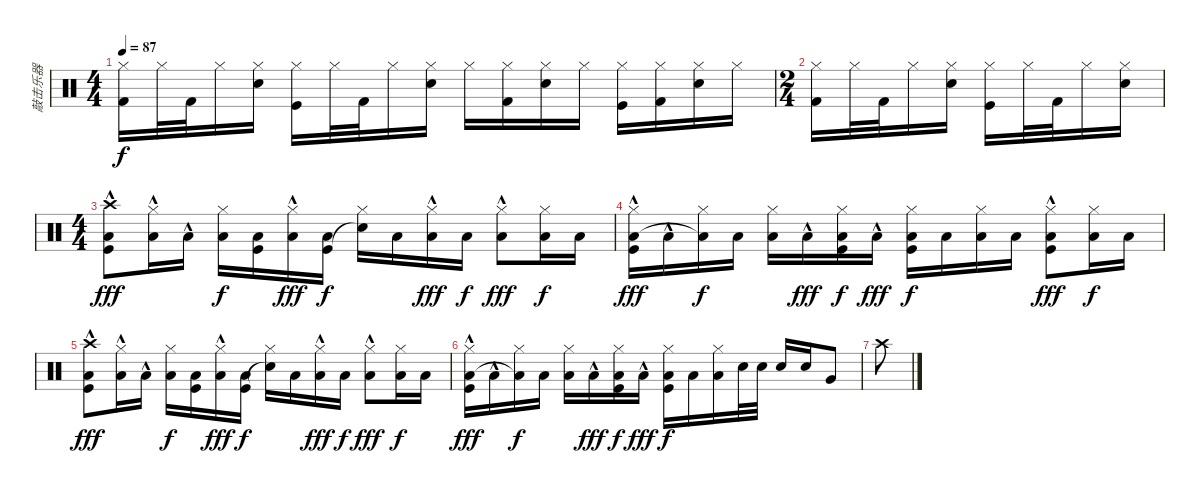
\track ("敲击乐器" "敲击乐器") {instrument percussion}
\staff {score}
\articulation defaults
\ts (4 4)
\tempo 87
\clef neutral
\ks c
("Hi-Hat (closed)" "Kick (hit) 2").16{dy f} "Hi-Hat (closed)".32 "Kick (hit) 2".32 "Hi-Hat (closed)".16 ("Hi-Hat (closed)" "Snare (hit) 2").16 ("Hi-Hat (closed)" "Kick (hit)").16 "Hi-Hat (closed)".32 "Kick (hit) 2".32 "Hi-Hat (closed)".16 ("Hi-Hat (closed)" "Snare (hit) 2").16 "Hi-Hat (closed)".16 ("Hi-Hat (closed)" "Kick (hit) 2").16 ("Hi-Hat (closed)" "Snare (hit) 2").16 "Hi-Hat (closed)".16 ("Hi-Hat (closed)" "Kick (hit)").16 ("Hi-Hat (closed)" "Kick (hit) 2").16 ("Hi-Hat (closed)" "Snare (hit) 2").16 "Hi-Hat (closed)".16 |
\ts (2 4)
("Hi-Hat (closed)" "Kick (hit) 2").16 "Hi-Hat (closed)".32 "Kick (hit) 2".32 "Hi-Hat (closed)".16 ("Hi-Hat (closed)" "Snare (hit) 2").16 ("Hi-Hat (closed)" "Kick (hit)").16 "Hi-Hat (closed)".32 "Kick (hit) 2".32 "Hi-Hat (closed)".16 ("Hi-Hat (closed)" "Snare (hit) 2").16 |
\ts (4 4)
("Crash high (hit)" "Low Floor Tom (hit)"{hac} "Kick (hit)").8{dy fff} ("Hi-Hat (closed)" "Low Floor Tom (hit)"{hac}).16 "Low Floor Tom (hit)"{hac}.16 ("Hi-Hat (closed)" "Low Floor Tom (hit)").16{dy f} ("Low Floor Tom (hit)" "Kick (hit)").16 ("Hi-Hat (closed)" "Low Floor Tom (hit)"{hac}).16{dy fff} ("Low Floor Tom (hit)" "Kick (hit)").16{dy f} ("Hi-Hat (closed)" "Snare (hit)"{t}).16 "Low Floor Tom (hit)".16 ("Hi-Hat (closed)" "Low Floor Tom (hit)"{hac}).16{dy fff} "Low Floor Tom (hit)".16{dy f} ("Hi-Hat (closed)" "Low Floor Tom (hit)"{hac}).8{dy fff} ("Hi-Hat (closed)" "Low Floor Tom (hit)").16{dy f} "Low Floor Tom (hit)".16 |
("Hi-Hat (closed)" "Low Floor Tom (hit)"{hac} "Kick (hit)").16{dy fff} "Low Floor Tom (hit)"{hac}.16 ("Hi-Hat (closed)" "Low Floor Tom (hit)"{t}).16{dy f} "Low Floor Tom (hit)".16 ("Hi-Hat (closed)" "Low Floor Tom (hit)").16 "Low Floor Tom (hit)"{hac}.16{dy fff} ("Hi-Hat (closed)" "Low Floor Tom (hit)" "Kick (hit)").16{dy f} "Low Floor Tom (hit)"{hac}.16{dy fff} ("Hi-Hat (closed)" "Low Floor Tom (hit)" "Kick (hit)").16{dy f} "Low Floor Tom (hit)".16 ("Hi-Hat (closed)" "Low Floor Tom (hit)").16 "Low Floor Tom (hit)".16 ("Hi-Hat (closed)" "Low Floor Tom (hit)"{hac} "Kick (hit)").8{dy fff} ("Hi-Hat (closed)" "Low Floor Tom (hit)").16{dy f} "Low Floor Tom (hit)".16 |
("Crash high (hit)" "Low Floor Tom (hit)"{hac} "Kick (hit)").8{dy fff} ("Hi-Hat (closed)" "Low Floor Tom (hit)"{hac}).16 "Low Floor Tom (hit)"{hac}.16 ("Hi-Hat (closed)" "Low Floor Tom (hit)").16{dy f} ("Low Floor Tom (hit)" "Kick (hit)").16 ("Hi-Hat (closed)" "Low Floor Tom (hit)"{hac}).16{dy fff} ("Low Floor Tom (hit)" "Kick (hit)").16{dy f} ("Hi-Hat (closed)" "Snare (hit)"{t}).16 "Low Floor Tom (hit)".16 ("Hi-Hat (closed)" "Low Floor Tom (hit)"{hac}).16{dy fff} "Low Floor Tom (hit)".16{dy f} ("Hi-Hat (closed)" "Low Floor Tom (hit)"{hac}).8{dy fff} ("Hi-Hat (closed)" "Low Floor Tom (hit)").16{dy f} "Low Floor Tom (hit)".16 |
("Hi-Hat (closed)" "Low Floor Tom (hit)"{hac} "Kick (hit)").16{dy fff} "Low Floor Tom (hit)"{hac}.16 ("Hi-Hat (closed)" "Low Floor Tom (hit)"{t}).16{dy f} "Low Floor Tom (hit)".16 ("Hi-Hat (closed)" "Low Floor Tom (hit)").16 "Low Floor Tom (hit)"{hac}.16{dy fff} ("Hi-Hat (closed)" "Low Floor Tom (hit)" "Kick (hit)").16{dy f} "Low Floor Tom (hit)"{hac}.16{dy fff} ("Hi-Hat (closed)" "Low Floor Tom (hit)" "Kick (hit)").16{dy f} "Low Floor Tom (hit)".16 ("Hi-Hat (closed)" "Low Floor Tom (hit)").16 "Snare (hit) 2".32 "Snare (hit) 2".32 "Snare (hit) 2".16 "Snare (hit) 2".16 "Very Low Tom (hit)".8 |
"Crash high (hit)".8
